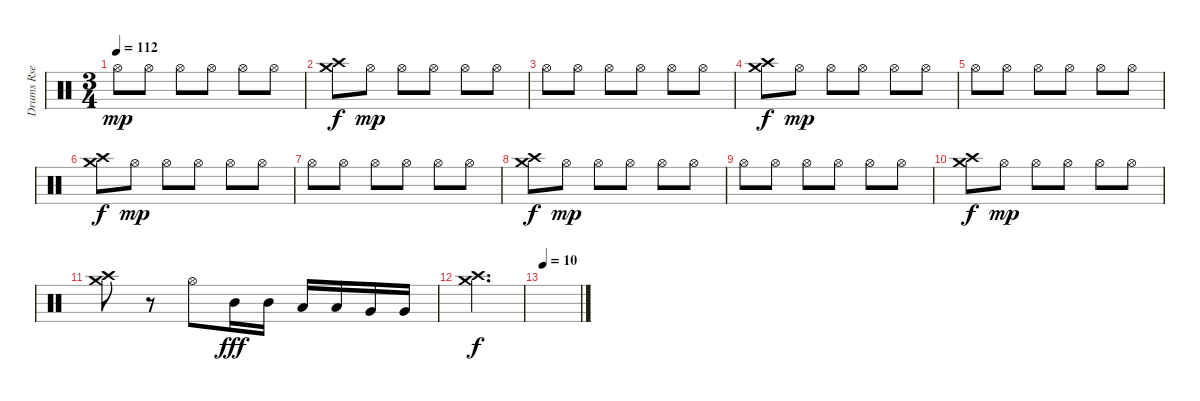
\track ("Drums Rse" "Drums Rse") {instrument percussion}
\staff {score}
\articulation defaults
\ts (3 4)
\tempo 112
\clef neutral
\ks c "Hi-Hat (open)".8{dy mp} "Hi-Hat (open)".8 "Hi-Hat (open)".8 "Hi-Hat (open)".8 "Hi-Hat (open)".8 "Hi-Hat (open)".8
|
("Crash medium (hit)" "Crash high (hit)").8{dy f} "Hi-Hat (open)".8{dy mp} "Hi-Hat (open)".8 "Hi-Hat (open)".8 "Hi-Hat (open)".8 "Hi-Hat (open)".8 |
"Hi-Hat (open)".8 "Hi-Hat (open)".8 "Hi-Hat (open)".8 "Hi-Hat (open)".8 "Hi-Hat (open)".8 "Hi-Hat (open)".8 |
("Crash medium (hit)" "Crash high (hit)").8{dy f} "Hi-Hat (open)".8{dy mp} "Hi-Hat (open)".8 "Hi-Hat (open)".8 "Hi-Hat (open)".8 "Hi-Hat (open)".8 |
"Hi-Hat (open)".8 "Hi-Hat (open)".8 "Hi-Hat (open)".8 "Hi-Hat (open)".8 "Hi-Hat (open)".8 "Hi-Hat (open)".8 |
("Crash medium (hit)" "Crash high (hit)").8{dy f} "Hi-Hat (open)".8{dy mp} "Hi-Hat (open)".8 "Hi-Hat (open)".8 "Hi-Hat (open)".8 "Hi-Hat (open)".8 |
"Hi-Hat (open)".8 "Hi-Hat (open)".8 "Hi-Hat (open)".8 "Hi-Hat (open)".8 "Hi-Hat (open)".8 "Hi-Hat (open)".8 |
("Crash medium (hit)" "Crash high (hit)").8{dy f} "Hi-Hat (open)".8{dy mp} "Hi-Hat (open)".8 "Hi-Hat (open)".8 "Hi-Hat (open)".8 "Hi-Hat (open)".8 |
"Hi-Hat (open)".8 "Hi-Hat (open)".8 "Hi-Hat (open)".8 "Hi-Hat (open)".8 "Hi-Hat (open)".8 "Hi-Hat (open)".8 |
("Crash medium (hit)" "Crash high (hit)").8{dy f} "Hi-Hat (open)".8{dy mp} "Hi-Hat (open)".8 "Hi-Hat (open)".8 "Hi-Hat (open)".8 "Hi-Hat (open)".8 |
("Crash medium (hit)" "Crash high (hit)").8 r.8 "Hi-Hat (open)".8 "Mid Tom (hit)".16{dy fff} "Mid Tom (hit)".16 "Low Tom (hit)".16 "Low Tom (hit)".16 "Very Low Tom (hit)".16 "Very Low Tom (hit)".16 |
("Crash medium (hit)" "Crash high (hit)").2{d dy f} |
\tempo 10
